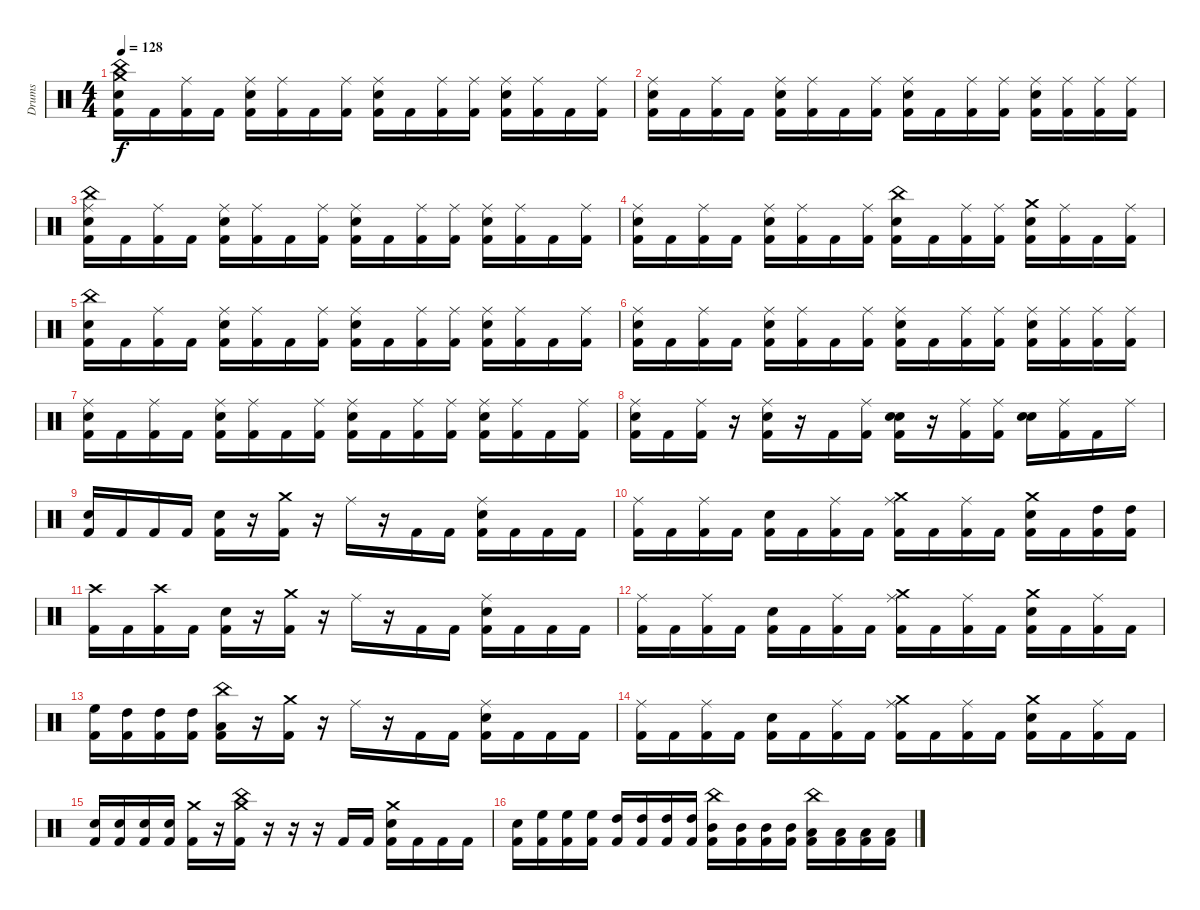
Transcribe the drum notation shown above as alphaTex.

\track ("Drums" "Drums") {instrument percussion}
\staff {score}
\articulation defaults
\ts (4 4)
\tempo 128
\clef neutral
\ks c
("China (hit)" "Crash medium (hit)" "Snare (hit) 2" "Kick (hit) 2").16{dy f} "Kick (hit) 2".16 ("Ride (middle)" "Kick (hit) 2").16 "Kick (hit) 2".16 ("Snare (hit) 2" "Ride (middle)" "Kick (hit) 2").16 ("Ride (middle)" "Kick (hit) 2").16 "Kick (hit) 2".16 ("Ride (middle)" "Kick (hit) 2").16 ("Snare (hit) 2" "Ride (middle)" "Kick (hit) 2").16 "Kick (hit) 2".16 ("Ride (middle)" "Kick (hit) 2").16 ("Ride (middle)" "Kick (hit) 2").16 ("Snare (hit) 2" "Ride (middle)" "Kick (hit) 2").16 ("Ride (middle)" "Kick (hit) 2").16 "Kick (hit) 2".16 ("Ride (middle)" "Kick (hit) 2").16 |
("Snare (hit) 2" "Ride (middle)" "Kick (hit) 2").16 "Kick (hit) 2".16 ("Ride (middle)" "Kick (hit) 2").16 "Kick (hit) 2".16 ("Snare (hit) 2" "Ride (middle)" "Kick (hit) 2").16 ("Ride (middle)" "Kick (hit) 2").16 "Kick (hit) 2".16 ("Ride (middle)" "Kick (hit) 2").16 ("Snare (hit) 2" "Ride (middle)" "Kick (hit) 2").16 "Kick (hit) 2".16 ("Ride (middle)" "Kick (hit) 2").16 ("Ride (middle)" "Kick (hit) 2").16 ("Snare (hit) 2" "Ride (middle)" "Kick (hit) 2").16 ("Ride (middle)" "Kick (hit) 2").16 ("Ride (middle)" "Kick (hit) 2").16 ("Ride (middle)" "Kick (hit) 2").16 |
("China (hit)" "Snare (hit) 2" "Ride (middle)" "Kick (hit) 2").16 "Kick (hit) 2".16 ("Ride (middle)" "Kick (hit) 2").16 "Kick (hit) 2".16 ("Snare (hit) 2" "Ride (middle)" "Kick (hit) 2").16 ("Ride (middle)" "Kick (hit) 2").16 "Kick (hit) 2".16 ("Ride (middle)" "Kick (hit) 2").16 ("Snare (hit) 2" "Ride (middle)" "Kick (hit) 2").16 "Kick (hit) 2".16 ("Ride (middle)" "Kick (hit) 2").16 ("Ride (middle)" "Kick (hit) 2").16 ("Snare (hit) 2" "Ride (middle)" "Kick (hit) 2").16 ("Ride (middle)" "Kick (hit) 2").16 "Kick (hit) 2".16 ("Ride (middle)" "Kick (hit) 2").16 |
("Snare (hit) 2" "Ride (middle)" "Kick (hit) 2").16 "Kick (hit) 2".16 ("Ride (middle)" "Kick (hit) 2").16 "Kick (hit) 2".16 ("Snare (hit) 2" "Ride (middle)" "Kick (hit) 2").16 ("Ride (middle)" "Kick (hit) 2").16 "Kick (hit) 2".16 ("Ride (middle)" "Kick (hit) 2").16 ("China (hit)" "Snare (hit) 2" "Kick (hit) 2").16 "Kick (hit) 2".16 ("Ride (middle)" "Kick (hit) 2").16 ("Ride (middle)" "Kick (hit) 2").16 ("Crash medium (hit)" "Snare (hit) 2" "Kick (hit) 2").16 ("Ride (middle)" "Kick (hit) 2").16 "Kick (hit) 2".16 ("Ride (middle)" "Kick (hit) 2").16 |
("China (hit)" "Snare (hit) 2" "Kick (hit) 2").16 "Kick (hit) 2".16 ("Ride (middle)" "Kick (hit) 2").16 "Kick (hit) 2".16 ("Snare (hit) 2" "Ride (middle)" "Kick (hit) 2").16 ("Ride (middle)" "Kick (hit) 2").16 "Kick (hit) 2".16 ("Ride (middle)" "Kick (hit) 2").16 ("Snare (hit) 2" "Ride (middle)" "Kick (hit) 2").16 "Kick (hit) 2".16 ("Ride (middle)" "Kick (hit) 2").16 ("Ride (middle)" "Kick (hit) 2").16 ("Snare (hit) 2" "Ride (middle)" "Kick (hit) 2").16 ("Ride (middle)" "Kick (hit) 2").16 "Kick (hit) 2".16 ("Ride (middle)" "Kick (hit) 2").16 |
("Snare (hit) 2" "Ride (middle)" "Kick (hit) 2").16 "Kick (hit) 2".16 ("Ride (middle)" "Kick (hit) 2").16 "Kick (hit) 2".16 ("Snare (hit) 2" "Ride (middle)" "Kick (hit) 2").16 ("Ride (middle)" "Kick (hit) 2").16 "Kick (hit) 2".16 ("Ride (middle)" "Kick (hit) 2").16 ("Snare (hit) 2" "Ride (middle)" "Kick (hit) 2").16 "Kick (hit) 2".16 ("Ride (middle)" "Kick (hit) 2").16 ("Ride (middle)" "Kick (hit) 2").16 ("Snare (hit) 2" "Ride (middle)" "Kick (hit) 2").16 ("Ride (middle)" "Kick (hit) 2").16 ("Ride (middle)" "Kick (hit) 2").16 ("Ride (middle)" "Kick (hit) 2").16 |
("Snare (hit) 2" "Ride (middle)" "Kick (hit) 2").16 "Kick (hit) 2".16 ("Ride (middle)" "Kick (hit) 2").16 "Kick (hit) 2".16 ("Snare (hit) 2" "Ride (middle)" "Kick (hit) 2").16 ("Ride (middle)" "Kick (hit) 2").16 "Kick (hit) 2".16 ("Ride (middle)" "Kick (hit) 2").16 ("Snare (hit) 2" "Ride (middle)" "Kick (hit) 2").16 "Kick (hit) 2".16 ("Ride (middle)" "Kick (hit) 2").16 ("Ride (middle)" "Kick (hit) 2").16 ("Snare (hit) 2" "Ride (middle)" "Kick (hit) 2").16 ("Ride (middle)" "Kick (hit) 2").16 "Kick (hit) 2".16 ("Ride (middle)" "Kick (hit) 2").16 |
("Snare (hit) 2" "Ride (middle)" "Kick (hit) 2").16 "Kick (hit) 2".16 ("Ride (middle)" "Kick (hit) 2").16 r.16 ("Snare (hit) 2" "Ride (middle)" "Kick (hit) 2").16 r.16 "Kick (hit) 2".16 ("Ride (middle)" "Kick (hit) 2").16 ("Snare (hit) 2" "Snare (hit) 2" "Kick (hit) 2").16 r.16 ("Ride (middle)" "Kick (hit) 2").16 ("Ride (middle)" "Kick (hit) 2").16 ("Snare (hit) 2" "Snare (hit) 2").16 ("Ride (middle)" "Kick (hit) 2").16 "Kick (hit) 2".16 "Ride (middle)".16 |
("Snare (hit) 2" "Kick (hit) 2").16 "Kick (hit) 2".16 "Kick (hit) 2".16 "Kick (hit) 2".16 ("Snare (hit) 2" "Kick (hit) 2").16 r.16 ("Crash medium (hit)" "Kick (hit) 2").16 r.16 "Ride (middle)".16 r.16 "Kick (hit) 2".16 "Kick (hit) 2".16 ("Ride (middle)" "Snare (hit) 2" "Kick (hit) 2").16 "Kick (hit) 2".16 "Kick (hit) 2".16 "Kick (hit) 2".16 |
("Ride (middle)" "Kick (hit) 2").16 "Kick (hit) 2".16 ("Ride (middle)" "Kick (hit) 2").16 "Kick (hit) 2".16 ("Snare (hit) 2" "Kick (hit) 2").16 "Kick (hit) 2".16 ("Ride (middle)" "Kick (hit) 2").16 "Kick (hit) 2".16 ("Crash medium (hit)" "Ride (middle)" "Kick (hit) 2").16 "Kick (hit) 2".16 ("Ride (middle)" "Kick (hit) 2").16 "Kick (hit) 2".16 ("Crash medium (hit)" "Snare (hit) 2" "Kick (hit) 2").16 "Kick (hit) 2".16 ("High Tom (hit)" "Kick (hit) 2").16 ("High Tom (hit)" "Kick (hit) 2").16 |
("Crash high (hit)" "Kick (hit) 2").16 "Kick (hit) 2".16 ("Crash high (hit)" "Kick (hit) 2").16 "Kick (hit) 2".16 ("Snare (hit) 2" "Kick (hit) 2").16 r.16 ("Crash medium (hit)" "Kick (hit) 2").16 r.16 "Ride (middle)".16 r.16 "Kick (hit) 2".16 "Kick (hit) 2".16 ("Ride (middle)" "Snare (hit) 2" "Kick (hit) 2").16 "Kick (hit) 2".16 "Kick (hit) 2".16 "Kick (hit) 2".16 |
("Ride (middle)" "Kick (hit) 2").16 "Kick (hit) 2".16 ("Ride (middle)" "Kick (hit) 2").16 "Kick (hit) 2".16 ("Snare (hit) 2" "Kick (hit) 2").16 "Kick (hit) 2".16 ("Ride (middle)" "Kick (hit) 2").16 "Kick (hit) 2".16 ("Crash medium (hit)" "Ride (middle)" "Kick (hit) 2").16 "Kick (hit) 2".16 ("Ride (middle)" "Kick (hit) 2").16 "Kick (hit) 2".16 ("Crash medium (hit)" "Snare (hit) 2" "Kick (hit) 2").16 "Kick (hit) 2".16 ("Ride (middle)" "Kick (hit) 2").16 "Kick (hit) 2".16 |
("High Floor Tom (hit)" "Kick (hit) 2").16 ("High Tom (hit)" "Kick (hit) 2").16 ("High Tom (hit)" "Kick (hit) 2").16 ("High Tom (hit)" "Kick (hit) 2").16 ("China (hit)" "Low Tom (hit)" "Kick (hit) 2").16 r.16 ("Crash medium (hit)" "Kick (hit) 2").16 r.16 "Ride (middle)".16 r.16 "Kick (hit) 2".16 "Kick (hit) 2".16 ("Ride (middle)" "Snare (hit) 2" "Kick (hit) 2").16 "Kick (hit) 2".16 "Kick (hit) 2".16 "Kick (hit) 2".16 |
("Ride (middle)" "Kick (hit) 2").16 "Kick (hit) 2".16 ("Ride (middle)" "Kick (hit) 2").16 "Kick (hit) 2".16 ("Snare (hit) 2" "Kick (hit) 2").16 "Kick (hit) 2".16 ("Ride (middle)" "Kick (hit) 2").16 "Kick (hit) 2".16 ("Crash medium (hit)" "Ride (middle)" "Kick (hit) 2").16 "Kick (hit) 2".16 ("Ride (middle)" "Kick (hit) 2").16 "Kick (hit) 2".16 ("Crash medium (hit)" "Snare (hit) 2" "Kick (hit) 2").16 "Kick (hit) 2".16 ("Ride (middle)" "Kick (hit) 2").16 "Kick (hit) 2".16 |
("Snare (hit) 2" "Kick (hit) 2").16 ("Snare (hit) 2" "Kick (hit) 2").16 ("Snare (hit) 2" "Kick (hit) 2").16 ("Snare (hit) 2" "Kick (hit) 2").16 ("Crash medium (hit)" "Kick (hit) 2").16 r.16 ("China (hit)" "Crash medium (hit)" "Kick (hit) 2").16 r.16 r.16 r.16 "Kick (hit) 2".16 "Kick (hit) 2".16 ("Crash medium (hit)" "Snare (hit) 2" "Kick (hit) 2").16 "Kick (hit) 2".16 "Kick (hit) 2".16 "Kick (hit) 2".16 |
("Snare (hit) 2" "Kick (hit) 2").16 ("High Floor Tom (hit)" "Kick (hit) 2").16 ("High Floor Tom (hit)" "Kick (hit) 2").16 ("High Floor Tom (hit)" "Kick (hit) 2").16 ("High Tom (hit)" "Kick (hit) 2").16 ("High Tom (hit)" "Kick (hit) 2").16 ("High Tom (hit)" "Kick (hit) 2").16 ("High Tom (hit)" "Kick (hit) 2").16 ("China (hit)" "Mid Tom (hit)" "Kick (hit) 2").16 ("Mid Tom (hit)" "Kick (hit) 2").16 ("Mid Tom (hit)" "Kick (hit) 2").16 ("Mid Tom (hit)" "Kick (hit) 2").16 ("China (hit)" "Low Tom (hit)" "Kick (hit) 2").16 ("Low Tom (hit)" "Kick (hit) 2").16 ("Low Tom (hit)" "Kick (hit) 2").16 ("Low Tom (hit)" "Kick (hit) 2").16
